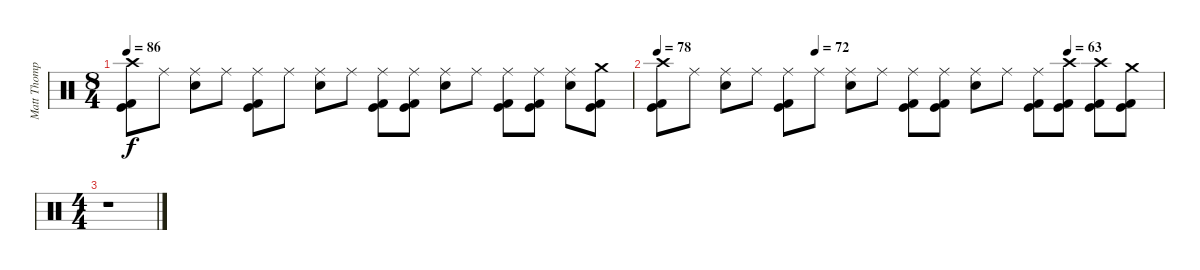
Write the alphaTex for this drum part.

\track ("Matt Thompson" "Matt Thomp") {instrument percussion}
\staff {score}
\articulation defaults
\ts (8 4)
\tempo 86
\clef neutral
\ks c
("Crash high (hit)" "Kick (hit)" "Kick (hit) 2").8{dy f} "Ride (middle)".8 ("Ride (middle)" "Snare (hit) 2").8 "Ride (middle)".8 ("Ride (middle)" "Kick (hit)" "Kick (hit) 2").8 "Ride (middle)".8 ("Ride (middle)" "Snare (hit) 2").8 "Ride (middle)".8 ("Ride (middle)" "Kick (hit)" "Kick (hit) 2").8 ("Ride (middle)" "Kick (hit)" "Kick (hit) 2").8 ("Ride (middle)" "Snare (hit) 2").8 "Ride (middle)".8 ("Ride (middle)" "Kick (hit)" "Kick (hit) 2").8 ("Ride (middle)" "Kick (hit)" "Kick (hit) 2").8 ("Ride (middle)" "Snare (hit) 2").8 ("Crash medium (hit)" "Kick (hit)" "Kick (hit) 2").8 |
\tempo 78
\tempo (72 0.3125)
\tempo (63 0.8125)
("Crash high (hit)" "Kick (hit)" "Kick (hit) 2").8 "Ride (middle)".8 ("Ride (middle)" "Snare (hit) 2").8 "Ride (middle)".8 ("Ride (middle)" "Kick (hit)" "Kick (hit) 2").8 "Ride (middle)".8 ("Ride (middle)" "Snare (hit) 2").8 "Ride (middle)".8 ("Ride (middle)" "Kick (hit)" "Kick (hit) 2").8 ("Ride (middle)" "Kick (hit)" "Kick (hit) 2").8 ("Ride (middle)" "Snare (hit) 2").8 "Ride (middle)".8 ("Ride (middle)" "Kick (hit)" "Kick (hit) 2").8 ("Crash high (hit)" "Kick (hit)" "Kick (hit) 2").8 ("Crash high (hit)" "Kick (hit)" "Kick (hit) 2").8 ("Crash medium (hit)" "Kick (hit)" "Kick (hit) 2").8 |
\ts (4 4)
r.1
